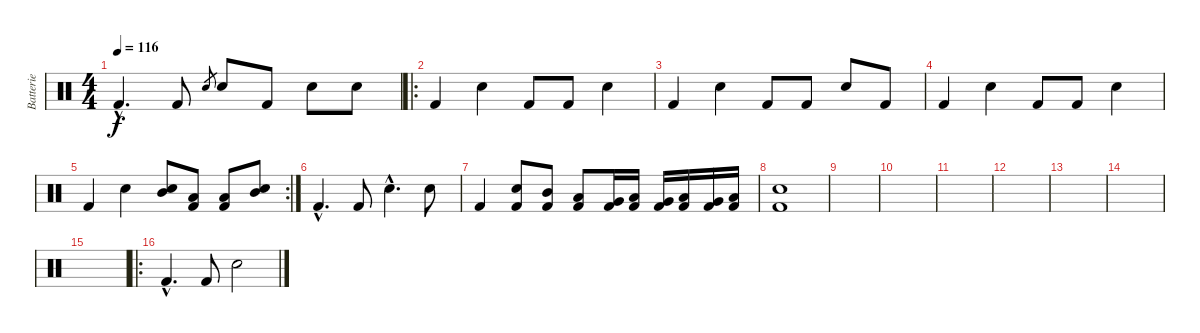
\track ("Batterie" "Batterie") {instrument percussion}
\staff {score}
\articulation defaults
\ts (4 4)
\tempo 116
\clef neutral
\ks c "Kick (hit) 2"{hac}.4{d dy f} "Kick (hit) 2".8 "Snare (hit) 2".8{gr} "Snare (hit) 2".8 "Kick (hit) 2".8 "Snare (hit) 2".8 "Snare (hit) 2".8
|
\ro "Kick (hit) 2".4 "Snare (hit) 2".4 "Kick (hit) 2".8 "Kick (hit) 2".8 "Snare (hit) 2".4
|
"Kick (hit) 2".4 "Snare (hit) 2".4 "Kick (hit) 2".8 "Kick (hit) 2".8 "Snare (hit) 2".8 "Kick (hit) 2".8 |
"Kick (hit) 2".4 "Snare (hit) 2".4 "Kick (hit) 2".8 "Kick (hit) 2".8 "Snare (hit) 2".4 |
\rc 2 "Kick (hit) 2".4 "Snare (hit) 2".4
("Mid Tom (hit)" "Snare (hit) 2").8 ("Low Tom (hit)" "Kick (hit) 2").8 ("Low Tom (hit)" "Kick (hit) 2").8 ("Mid Tom (hit)" "Snare (hit) 2").8 |
"Kick (hit) 2"{hac}.4{d} "Kick (hit) 2".8 "Snare (hit) 2"{hac}.4{d} "Snare (hit) 2".8 |
"Kick (hit) 2".4 ("Snare (hit) 2" "Kick (hit) 2").8 ("Mid Tom (hit)" "Kick (hit) 2").8 ("Low Tom (hit)" "Kick (hit) 2").8 ("Very Low Tom (hit)" "Kick (hit) 2").16 ("Low Tom (hit)" "Kick (hit) 2").16 ("Very Low Tom (hit)" "Kick (hit) 2").16 ("Low Floor Tom (hit)" "Kick (hit) 2").16 ("Very Low Tom (hit)" "Kick (hit) 2").16 ("Low Floor Tom (hit)" "Kick (hit) 2").16 |
("Snare (hit) 2" "Kick (hit) 2").1 |
|
|
|
|
|
|
|
\ro "Kick (hit) 2"{hac}.4{d} "Kick (hit) 2".8 "Snare (hit) 2".2
